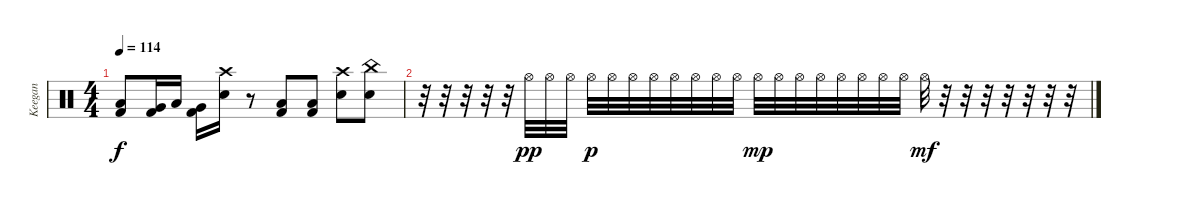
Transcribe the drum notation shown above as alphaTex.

\track ("Keegan" "Keegan") {instrument percussion}
\staff {score}
\articulation defaults
\ts (4 4)
\tempo 114
\clef neutral
\ks c
("Low Tom (hit)" "Kick (hit) 2").8{dy f} ("Very Low Tom (hit)" "Kick (hit) 2").16 "Low Tom (hit)".16 ("Very Low Tom (hit)" "Kick (hit) 2").16 ("Crash high (hit)" "Electric Snare (hit)").16 r.8 ("Low Tom (hit)" "Kick (hit) 2").8 ("Low Tom (hit)" "Kick (hit) 2").8 ("Crash high (hit)" "Electric Snare (hit)").8 ("China (hit)" "Electric Snare (hit)").8 |
r.32 r.32 r.32 r.32 r.32 "Hi-Hat (open)".32{dy pp} "Hi-Hat (open)".32 "Hi-Hat (open)".32 "Hi-Hat (open)".32{dy p} "Hi-Hat (open)".32 "Hi-Hat (open)".32 "Hi-Hat (open)".32 "Hi-Hat (open)".32 "Hi-Hat (open)".32 "Hi-Hat (open)".32 "Hi-Hat (open)".32 "Hi-Hat (open)".32{dy mp} "Hi-Hat (open)".32 "Hi-Hat (open)".32 "Hi-Hat (open)".32 "Hi-Hat (open)".32 "Hi-Hat (open)".32 "Hi-Hat (open)".32 "Hi-Hat (open)".32 "Hi-Hat (open)".32{dy mf} r.32 r.32 r.32 r.32 r.32 r.32 r.32
